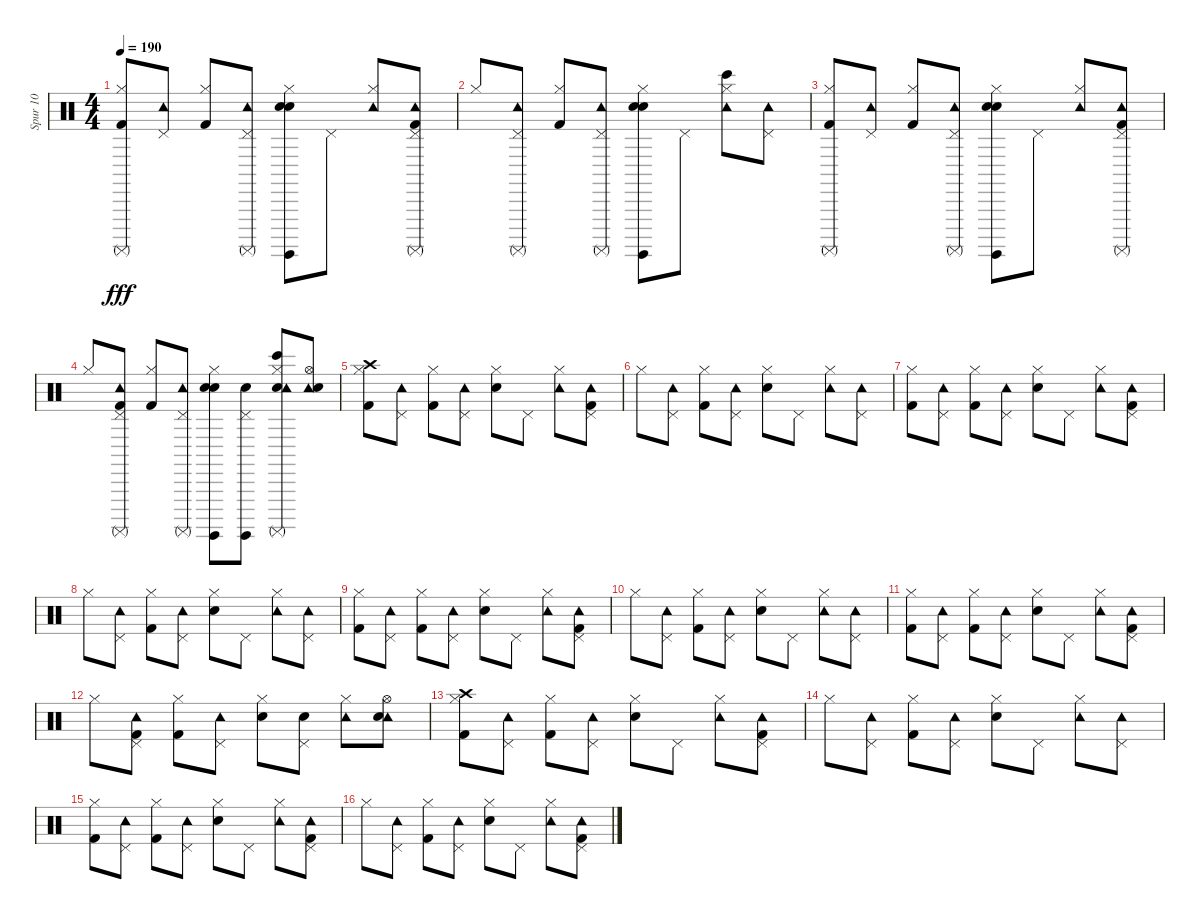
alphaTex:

\track ("Spur 10" "Spur 10") {instrument percussion}
\staff {score}
\articulation defaults
\ts (4 4)
\tempo 190
\clef neutral
\ks c
("Surdo (mute)" "Hi-Hat (closed)" "Kick (hit) 2").8{dy fff} ("Tambourine (hit)" "Pedal Hi-Hat (hit)").8 ("Hi-Hat (closed)" "Kick (hit) 2").8 ("Surdo (mute)" "Pedal Hi-Hat (hit)" "Tambourine (hit)").8 ("Hand Clap (hit)" "Surdo (hit)" "Hi-Hat (closed)" "Electric Snare (hit)").8 "Pedal Hi-Hat (hit)".8 ("Tambourine (hit)" "Hi-Hat (closed)").8 ("Surdo (mute)" "Pedal Hi-Hat (hit)" "Kick (hit) 2" "Tambourine (hit)").8 |
"Hi-Hat (closed)".8 ("Surdo (mute)" "Tambourine (hit)" "Pedal Hi-Hat (hit)").8 ("Hi-Hat (closed)" "Kick (hit) 2").8 ("Surdo (mute)" "Pedal Hi-Hat (hit)" "Tambourine (hit)").8 ("Hand Clap (hit)" "Surdo (hit)" "Hi-Hat (closed)" "Electric Snare (hit)").8 "Pedal Hi-Hat (hit)".8 ("Bongo High (hit)" "Tambourine (hit)" "Hi-Hat (closed)").8 ("Pedal Hi-Hat (hit)" "Tambourine (hit)").8 |
("Surdo (mute)" "Hi-Hat (closed)" "Kick (hit) 2").8 ("Tambourine (hit)" "Pedal Hi-Hat (hit)").8 ("Hi-Hat (closed)" "Kick (hit) 2").8 ("Surdo (mute)" "Pedal Hi-Hat (hit)" "Tambourine (hit)").8 ("Surdo (hit)" "Hand Clap (hit)" "Hi-Hat (closed)" "Electric Snare (hit)").8 "Pedal Hi-Hat (hit)".8 ("Tambourine (hit)" "Hi-Hat (closed)").8 ("Surdo (mute)" "Pedal Hi-Hat (hit)" "Kick (hit) 2" "Tambourine (hit)").8 |
"Hi-Hat (closed)".8 ("Surdo (mute)" "Tambourine (hit)" "Kick (hit) 2" "Pedal Hi-Hat (hit)").8 ("Kick (hit) 2" "Hi-Hat (closed)").8 ("Surdo (mute)" "Tambourine (hit)" "Pedal Hi-Hat (hit)").8 ("Hand Clap (hit)" "Surdo (hit)" "Electric Snare (hit)" "Hi-Hat (closed)").8 ("Surdo (hit)" "Electric Snare (hit)" "Pedal Hi-Hat (hit)").8 ("Surdo (mute)" "Bongo High (hit)" "Electric Snare (hit)" "Tambourine (hit)" "Hi-Hat (closed)").8 ("Tambourine (hit)" "Electric Snare (hit)" "Hi-Hat (open)").8 |
("Crash high (hit)" "Kick (hit) 2" "Hi-Hat (closed)").8 ("Tambourine (hit)" "Pedal Hi-Hat (hit)").8 ("Hi-Hat (closed)" "Kick (hit) 2").8 ("Tambourine (hit)" "Pedal Hi-Hat (hit)").8 ("Hi-Hat (closed)" "Electric Snare (hit)").8 "Pedal Hi-Hat (hit)".8 ("Tambourine (hit)" "Hi-Hat (closed)").8 ("Tambourine (hit)" "Pedal Hi-Hat (hit)" "Kick (hit) 2").8 |
"Hi-Hat (closed)".8 ("Tambourine (hit)" "Pedal Hi-Hat (hit)").8 ("Hi-Hat (closed)" "Kick (hit) 2").8 ("Tambourine (hit)" "Pedal Hi-Hat (hit)").8 ("Hi-Hat (closed)" "Electric Snare (hit)").8 "Pedal Hi-Hat (hit)".8 ("Tambourine (hit)" "Hi-Hat (closed)").8 ("Tambourine (hit)" "Pedal Hi-Hat (hit)").8 |
("Hi-Hat (closed)" "Kick (hit) 2").8 ("Tambourine (hit)" "Pedal Hi-Hat (hit)").8 ("Hi-Hat (closed)" "Kick (hit) 2").8 ("Tambourine (hit)" "Pedal Hi-Hat (hit)").8 ("Hi-Hat (closed)" "Electric Snare (hit)").8 "Pedal Hi-Hat (hit)".8 ("Tambourine (hit)" "Hi-Hat (closed)").8 ("Tambourine (hit)" "Pedal Hi-Hat (hit)" "Kick (hit) 2").8 |
"Hi-Hat (closed)".8 ("Tambourine (hit)" "Pedal Hi-Hat (hit)").8 ("Kick (hit) 2" "Hi-Hat (closed)").8 ("Tambourine (hit)" "Pedal Hi-Hat (hit)").8 ("Hi-Hat (closed)" "Electric Snare (hit)").8 "Pedal Hi-Hat (hit)".8 ("Tambourine (hit)" "Hi-Hat (closed)").8 ("Tambourine (hit)" "Pedal Hi-Hat (hit)").8 |
("Hi-Hat (closed)" "Kick (hit) 2").8 ("Pedal Hi-Hat (hit)" "Tambourine (hit)").8 ("Hi-Hat (closed)" "Kick (hit) 2").8 ("Tambourine (hit)" "Pedal Hi-Hat (hit)").8 ("Hi-Hat (closed)" "Electric Snare (hit)").8 "Pedal Hi-Hat (hit)".8 ("Tambourine (hit)" "Hi-Hat (closed)").8 ("Tambourine (hit)" "Pedal Hi-Hat (hit)" "Kick (hit) 2").8 |
"Hi-Hat (closed)".8 ("Tambourine (hit)" "Pedal Hi-Hat (hit)").8 ("Kick (hit) 2" "Hi-Hat (closed)").8 ("Pedal Hi-Hat (hit)" "Tambourine (hit)").8 ("Hi-Hat (closed)" "Electric Snare (hit)").8 "Pedal Hi-Hat (hit)".8 ("Tambourine (hit)" "Hi-Hat (closed)").8 ("Tambourine (hit)" "Pedal Hi-Hat (hit)").8 |
("Hi-Hat (closed)" "Kick (hit) 2").8 ("Pedal Hi-Hat (hit)" "Tambourine (hit)").8 ("Kick (hit) 2" "Hi-Hat (closed)").8 ("Tambourine (hit)" "Pedal Hi-Hat (hit)").8 ("Hi-Hat (closed)" "Electric Snare (hit)").8 "Pedal Hi-Hat (hit)".8 ("Tambourine (hit)" "Hi-Hat (closed)").8 ("Tambourine (hit)" "Pedal Hi-Hat (hit)" "Kick (hit) 2").8 |
"Hi-Hat (closed)".8 ("Tambourine (hit)" "Pedal Hi-Hat (hit)" "Kick (hit) 2").8 ("Hi-Hat (closed)" "Kick (hit) 2").8 ("Pedal Hi-Hat (hit)" "Tambourine (hit)").8 ("Hi-Hat (closed)" "Electric Snare (hit)").8 ("Electric Snare (hit)" "Pedal Hi-Hat (hit)").8 ("Tambourine (hit)" "Hi-Hat (closed)").8 ("Tambourine (hit)" "Hi-Hat (open)" "Electric Snare (hit)").8 |
("Crash high (hit)" "Hi-Hat (closed)" "Kick (hit) 2").8 ("Tambourine (hit)" "Pedal Hi-Hat (hit)").8 ("Kick (hit) 2" "Hi-Hat (closed)").8 ("Tambourine (hit)" "Pedal Hi-Hat (hit)").8 ("Hi-Hat (closed)" "Electric Snare (hit)").8 "Pedal Hi-Hat (hit)".8 ("Tambourine (hit)" "Hi-Hat (closed)").8 ("Tambourine (hit)" "Pedal Hi-Hat (hit)" "Kick (hit) 2").8 |
"Hi-Hat (closed)".8 ("Tambourine (hit)" "Pedal Hi-Hat (hit)").8 ("Hi-Hat (closed)" "Kick (hit) 2").8 ("Pedal Hi-Hat (hit)" "Tambourine (hit)").8 ("Hi-Hat (closed)" "Electric Snare (hit)").8 "Pedal Hi-Hat (hit)".8 ("Tambourine (hit)" "Hi-Hat (closed)").8 ("Tambourine (hit)" "Pedal Hi-Hat (hit)").8 |
("Hi-Hat (closed)" "Kick (hit) 2").8 ("Tambourine (hit)" "Pedal Hi-Hat (hit)").8 ("Hi-Hat (closed)" "Kick (hit) 2").8 ("Tambourine (hit)" "Pedal Hi-Hat (hit)").8 ("Hi-Hat (closed)" "Electric Snare (hit)").8 "Pedal Hi-Hat (hit)".8 ("Tambourine (hit)" "Hi-Hat (closed)").8 ("Tambourine (hit)" "Pedal Hi-Hat (hit)" "Kick (hit) 2").8 |
"Hi-Hat (closed)".8 ("Tambourine (hit)" "Pedal Hi-Hat (hit)").8 ("Hi-Hat (closed)" "Kick (hit) 2").8 ("Tambourine (hit)" "Pedal Hi-Hat (hit)").8 ("Hi-Hat (closed)" "Electric Snare (hit)").8 "Pedal Hi-Hat (hit)".8 ("Tambourine (hit)" "Hi-Hat (closed)").8 ("Tambourine (hit)" "Pedal Hi-Hat (hit)" "Kick (hit) 2").8
